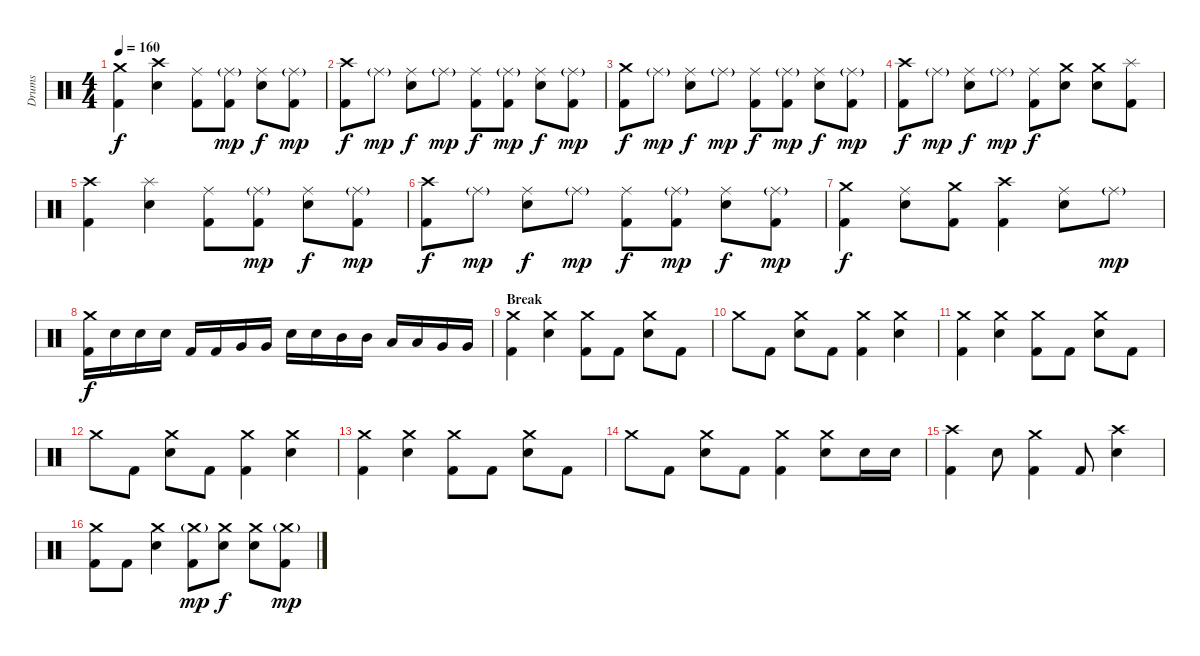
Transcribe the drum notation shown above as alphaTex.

\track ("Drums" "Drums") {instrument percussion}
\staff {score}
\articulation defaults
\ts (4 4)
\tempo 160
\clef neutral
\ks c
("Crash medium (hit)" "Kick (hit) 2").4{dy f} ("Crash high (hit)" "Snare (hit) 2").4 ("Ride (middle)" "Kick (hit) 2").8 ("Ride (middle)"{g} "Kick (hit) 2").8{dy mp} ("Ride (middle)" "Snare (hit) 2").8{dy f} ("Ride (middle)"{g} "Kick (hit) 2").8{dy mp} |
("Crash high (hit)" "Kick (hit) 2").8{dy f} "Ride (middle)"{g}.8{dy mp} ("Ride (middle)" "Snare (hit) 2").8{dy f} "Ride (middle)"{g}.8{dy mp} ("Ride (middle)" "Kick (hit) 2").8{dy f} ("Ride (middle)"{g} "Kick (hit) 2").8{dy mp} ("Ride (middle)" "Snare (hit) 2").8{dy f} ("Ride (middle)"{g} "Kick (hit) 2").8{dy mp} |
("Crash medium (hit)" "Kick (hit) 2").8{dy f} "Ride (middle)"{g}.8{dy mp} ("Ride (middle)" "Snare (hit) 2").8{dy f} "Ride (middle)"{g}.8{dy mp} ("Ride (middle)" "Kick (hit) 2").8{dy f} ("Ride (middle)"{g} "Kick (hit) 2").8{dy mp} ("Ride (middle)" "Snare (hit) 2").8{dy f} ("Ride (middle)"{g} "Kick (hit) 2").8{dy mp} |
("Crash high (hit)" "Kick (hit) 2").8{dy f} "Ride (middle)"{g}.8{dy mp} ("Ride (middle)" "Snare (hit) 2").8{dy f} "Ride (middle)"{g}.8{dy mp} ("Ride (middle)" "Kick (hit) 2").8{dy f} ("Crash medium (hit)" "Snare (hit) 2").8 ("Crash medium (hit)" "Snare (hit) 2").8 ("Splash (hit)" "Kick (hit) 2").8 |
("Crash high (hit)" "Kick (hit) 2").4 ("Splash (hit)" "Snare (hit) 2").4 ("Ride (middle)" "Kick (hit) 2").8 ("Ride (middle)"{g} "Kick (hit) 2").8{dy mp} ("Ride (middle)" "Snare (hit) 2").8{dy f} ("Ride (middle)"{g} "Kick (hit) 2").8{dy mp} |
("Crash high (hit)" "Kick (hit) 2").8{dy f} "Ride (middle)"{g}.8{dy mp} ("Ride (middle)" "Snare (hit) 2").8{dy f} "Ride (middle)"{g}.8{dy mp} ("Ride (middle)" "Kick (hit) 2").8{dy f} ("Ride (middle)"{g} "Kick (hit) 2").8{dy mp} ("Ride (middle)" "Snare (hit) 2").8{dy f} ("Ride (middle)"{g} "Kick (hit) 2").8{dy mp} |
("Crash medium (hit)" "Kick (hit) 2").4{dy f} ("Ride (middle)" "Snare (hit) 2").8 ("Crash medium (hit)" "Kick (hit) 2").8 ("Crash high (hit)" "Kick (hit) 2").4 ("Ride (middle)" "Snare (hit) 2").8 "Ride (middle)"{g}.8{dy mp} |
("Crash medium (hit)" "Kick (hit) 2").16{dy f} "Snare (hit) 2".16 "Snare (hit) 2".16 "Snare (hit) 2".16 "Kick (hit) 2".16 "Kick (hit) 2".16 "Very Low Tom (hit)".16 "Very Low Tom (hit)".16 "Snare (hit) 2".16 "Snare (hit) 2".16 "Mid Tom (hit)".16 "Mid Tom (hit)".16 "Low Tom (hit)".16 "Low Tom (hit)".16 "Very Low Tom (hit)".16 "Very Low Tom (hit)".16 |
\section ("" "Break")
("Crash medium (hit)" "Kick (hit) 2").4 ("Crash medium (hit)" "Snare (hit) 2").4 ("Crash medium (hit)" "Kick (hit) 2").8 "Kick (hit) 2".8 ("Crash medium (hit)" "Snare (hit) 2").8 "Kick (hit) 2".8 |
"Crash medium (hit)".8 "Kick (hit) 2".8 ("Crash medium (hit)" "Snare (hit) 2").8 "Kick (hit) 2".8 ("Crash medium (hit)" "Kick (hit) 2").4 ("Crash medium (hit)" "Snare (hit) 2").4 |
("Crash medium (hit)" "Kick (hit) 2").4 ("Crash medium (hit)" "Snare (hit) 2").4 ("Crash medium (hit)" "Kick (hit) 2").8 "Kick (hit) 2".8 ("Crash medium (hit)" "Snare (hit) 2").8 "Kick (hit) 2".8 |
"Crash medium (hit)".8 "Kick (hit) 2".8 ("Crash medium (hit)" "Snare (hit) 2").8 "Kick (hit) 2".8 ("Crash medium (hit)" "Kick (hit) 2").4 ("Crash medium (hit)" "Snare (hit) 2").4 |
("Crash medium (hit)" "Kick (hit) 2").4 ("Crash medium (hit)" "Snare (hit) 2").4 ("Crash medium (hit)" "Kick (hit) 2").8 "Kick (hit) 2".8 ("Crash medium (hit)" "Snare (hit) 2").8 "Kick (hit) 2".8 |
"Crash medium (hit)".8 "Kick (hit) 2".8 ("Crash medium (hit)" "Snare (hit) 2").8 "Kick (hit) 2".8 ("Crash medium (hit)" "Kick (hit) 2").4 ("Crash medium (hit)" "Snare (hit) 2").8 "Snare (hit) 2".16 "Snare (hit) 2".16 |
("Crash high (hit)" "Kick (hit) 2").4 "Snare (hit) 2".8 ("Crash medium (hit)" "Kick (hit) 2").4 "Kick (hit) 2".8 ("Crash high (hit)" "Snare (hit) 2").4 |
("Crash medium (hit)" "Kick (hit) 2").8 "Kick (hit) 2".8 ("Crash medium (hit)" "Snare (hit) 2").4 ("Crash medium (hit)"{g} "Kick (hit) 2").8{dy mp} ("Crash medium (hit)" "Snare (hit) 2").8{dy f} ("Crash medium (hit)" "Snare (hit) 2").8 ("Crash medium (hit)"{g} "Kick (hit) 2").8{dy mp}
